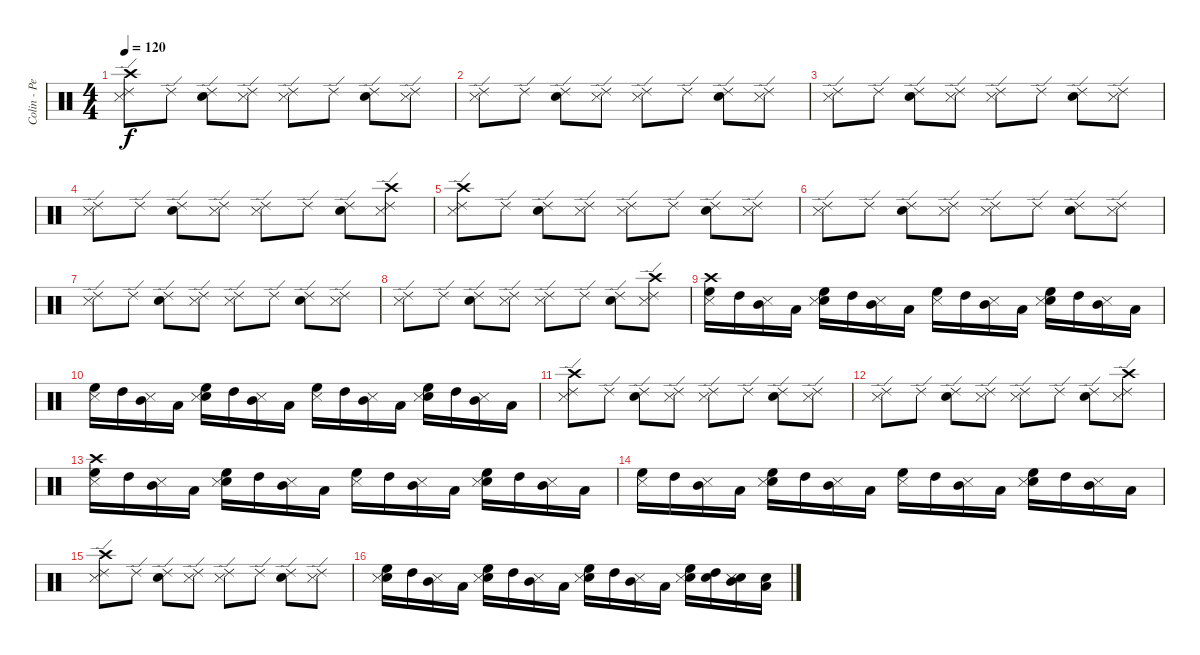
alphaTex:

\track ("Colin - Percussion" "Colin - Pe") {instrument percussion}
\staff {score}
\articulation defaults
\ts (4 4)
\tempo 120
\clef neutral
\ks c
("Ride (edge) 2" "Crash high (hit)" "Metronome (hit)").8{dy f} "Ride (edge) 2".8 ("Ride (edge) 2" "Electric Snare (hit)").8 ("Ride (edge) 2" "Metronome (hit)").8 ("Ride (edge) 2" "Metronome (hit)").8 "Ride (edge) 2".8 ("Ride (edge) 2" "Electric Snare (hit)").8 ("Ride (edge) 2" "Metronome (hit)").8 |
("Ride (edge) 2" "Metronome (hit)").8 "Ride (edge) 2".8 ("Ride (edge) 2" "Electric Snare (hit)").8 ("Ride (edge) 2" "Metronome (hit)").8 ("Ride (edge) 2" "Metronome (hit)").8 "Ride (edge) 2".8 ("Ride (edge) 2" "Electric Snare (hit)").8 ("Ride (edge) 2" "Metronome (hit)").8 |
("Ride (edge) 2" "Metronome (hit)").8 "Ride (edge) 2".8 ("Ride (edge) 2" "Electric Snare (hit)").8 ("Ride (edge) 2" "Metronome (hit)").8 ("Ride (edge) 2" "Metronome (hit)").8 "Ride (edge) 2".8 ("Ride (edge) 2" "Electric Snare (hit)").8 ("Ride (edge) 2" "Metronome (hit)").8 |
("Ride (edge) 2" "Metronome (hit)").8 "Ride (edge) 2".8 ("Ride (edge) 2" "Electric Snare (hit)").8 ("Ride (edge) 2" "Metronome (hit)").8 ("Ride (edge) 2" "Metronome (hit)").8 "Ride (edge) 2".8 ("Ride (edge) 2" "Electric Snare (hit)").8 ("Ride (edge) 2" "Crash high (hit)" "Metronome (hit)").8 |
("Ride (edge) 2" "Crash high (hit)" "Metronome (hit)").8 "Ride (edge) 2".8 ("Ride (edge) 2" "Electric Snare (hit)").8 ("Ride (edge) 2" "Metronome (hit)").8 ("Ride (edge) 2" "Metronome (hit)").8 "Ride (edge) 2".8 ("Ride (edge) 2" "Electric Snare (hit)").8 ("Ride (edge) 2" "Metronome (hit)").8 |
("Ride (edge) 2" "Metronome (hit)").8 "Ride (edge) 2".8 ("Ride (edge) 2" "Electric Snare (hit)").8 ("Ride (edge) 2" "Metronome (hit)").8 ("Ride (edge) 2" "Metronome (hit)").8 "Ride (edge) 2".8 ("Ride (edge) 2" "Electric Snare (hit)").8 ("Ride (edge) 2" "Metronome (hit)").8 |
("Ride (edge) 2" "Metronome (hit)").8 "Ride (edge) 2".8 ("Ride (edge) 2" "Electric Snare (hit)").8 ("Ride (edge) 2" "Metronome (hit)").8 ("Ride (edge) 2" "Metronome (hit)").8 "Ride (edge) 2".8 ("Ride (edge) 2" "Electric Snare (hit)").8 ("Ride (edge) 2" "Metronome (hit)").8 |
("Ride (edge) 2" "Metronome (hit)").8 "Ride (edge) 2".8 ("Ride (edge) 2" "Electric Snare (hit)").8 ("Ride (edge) 2" "Metronome (hit)").8 ("Ride (edge) 2" "Metronome (hit)").8 "Ride (edge) 2".8 ("Ride (edge) 2" "Electric Snare (hit)").8 ("Ride (edge) 2" "Crash high (hit)" "Metronome (hit)").8 |
("Crash high (hit)" "High Floor Tom (hit)" "Metronome (hit)").16 "High Tom (hit)".16 ("Mid Tom (hit)" "Metronome (hit)").16 "Low Tom (hit)".16 ("High Floor Tom (hit)" "Electric Snare (hit)" "Metronome (hit)").16 "High Tom (hit)".16 ("Mid Tom (hit)" "Metronome (hit)").16 "Low Tom (hit)".16 ("High Floor Tom (hit)" "Metronome (hit)").16 "High Tom (hit)".16 ("Mid Tom (hit)" "Metronome (hit)").16 "Low Tom (hit)".16 ("High Floor Tom (hit)" "Electric Snare (hit)" "Metronome (hit)").16 "High Tom (hit)".16 ("Mid Tom (hit)" "Metronome (hit)").16 "Low Tom (hit)".16 |
("High Floor Tom (hit)" "Metronome (hit)").16 "High Tom (hit)".16 ("Mid Tom (hit)" "Metronome (hit)").16 "Low Tom (hit)".16 ("High Floor Tom (hit)" "Electric Snare (hit)" "Metronome (hit)").16 "High Tom (hit)".16 ("Mid Tom (hit)" "Metronome (hit)").16 "Low Tom (hit)".16 ("High Floor Tom (hit)" "Metronome (hit)").16 "High Tom (hit)".16 ("Mid Tom (hit)" "Metronome (hit)").16 "Low Tom (hit)".16 ("High Floor Tom (hit)" "Electric Snare (hit)" "Metronome (hit)").16 "High Tom (hit)".16 ("Mid Tom (hit)" "Metronome (hit)").16 "Low Tom (hit)".16 |
("Ride (edge) 2" "Crash high (hit)" "Metronome (hit)").8 "Ride (edge) 2".8 ("Ride (edge) 2" "Electric Snare (hit)").8 ("Ride (edge) 2" "Metronome (hit)").8 ("Ride (edge) 2" "Metronome (hit)").8 "Ride (edge) 2".8 ("Ride (edge) 2" "Electric Snare (hit)").8 ("Ride (edge) 2" "Metronome (hit)").8 |
("Ride (edge) 2" "Metronome (hit)").8 "Ride (edge) 2".8 ("Ride (edge) 2" "Electric Snare (hit)").8 ("Ride (edge) 2" "Metronome (hit)").8 ("Ride (edge) 2" "Metronome (hit)").8 "Ride (edge) 2".8 ("Ride (edge) 2" "Electric Snare (hit)").8 ("Ride (edge) 2" "Crash high (hit)" "Metronome (hit)").8 |
("Crash high (hit)" "High Floor Tom (hit)" "Metronome (hit)").16 "High Tom (hit)".16 ("Mid Tom (hit)" "Metronome (hit)").16 "Low Tom (hit)".16 ("High Floor Tom (hit)" "Electric Snare (hit)" "Metronome (hit)").16 "High Tom (hit)".16 ("Mid Tom (hit)" "Metronome (hit)").16 "Low Tom (hit)".16 ("High Floor Tom (hit)" "Metronome (hit)").16 "High Tom (hit)".16 ("Mid Tom (hit)" "Metronome (hit)").16 "Low Tom (hit)".16 ("High Floor Tom (hit)" "Electric Snare (hit)" "Metronome (hit)").16 "High Tom (hit)".16 ("Mid Tom (hit)" "Metronome (hit)").16 "Low Tom (hit)".16 |
("High Floor Tom (hit)" "Metronome (hit)").16 "High Tom (hit)".16 ("Mid Tom (hit)" "Metronome (hit)").16 "Low Tom (hit)".16 ("High Floor Tom (hit)" "Electric Snare (hit)" "Metronome (hit)").16 "High Tom (hit)".16 ("Mid Tom (hit)" "Metronome (hit)").16 "Low Tom (hit)".16 ("High Floor Tom (hit)" "Metronome (hit)").16 "High Tom (hit)".16 ("Mid Tom (hit)" "Metronome (hit)").16 "Low Tom (hit)".16 ("High Floor Tom (hit)" "Electric Snare (hit)" "Metronome (hit)").16 "High Tom (hit)".16 ("Mid Tom (hit)" "Metronome (hit)").16 "Low Tom (hit)".16 |
("Ride (edge) 2" "Crash high (hit)" "Metronome (hit)").8 "Ride (edge) 2".8 ("Ride (edge) 2" "Electric Snare (hit)").8 ("Ride (edge) 2" "Metronome (hit)").8 ("Ride (edge) 2" "Metronome (hit)").8 "Ride (edge) 2".8 ("Ride (edge) 2" "Electric Snare (hit)").8 ("Ride (edge) 2" "Metronome (hit)").8 |
("High Floor Tom (hit)" "Electric Snare (hit)" "Metronome (hit)").16 "High Tom (hit)".16 ("Mid Tom (hit)" "Metronome (hit)").16 "Low Tom (hit)".16 ("High Floor Tom (hit)" "Electric Snare (hit)" "Metronome (hit)").16 "High Tom (hit)".16 ("Mid Tom (hit)" "Metronome (hit)").16 "Low Tom (hit)".16 ("High Floor Tom (hit)" "Electric Snare (hit)" "Metronome (hit)").16 "High Tom (hit)".16 ("Mid Tom (hit)" "Metronome (hit)").16 "Low Tom (hit)".16 ("High Floor Tom (hit)" "Electric Snare (hit)" "Metronome (hit)").16 ("High Tom (hit)" "Electric Snare (hit)").16 ("Mid Tom (hit)" "Electric Snare (hit)" "Metronome (hit)").16 ("Low Tom (hit)" "Electric Snare (hit)").16
